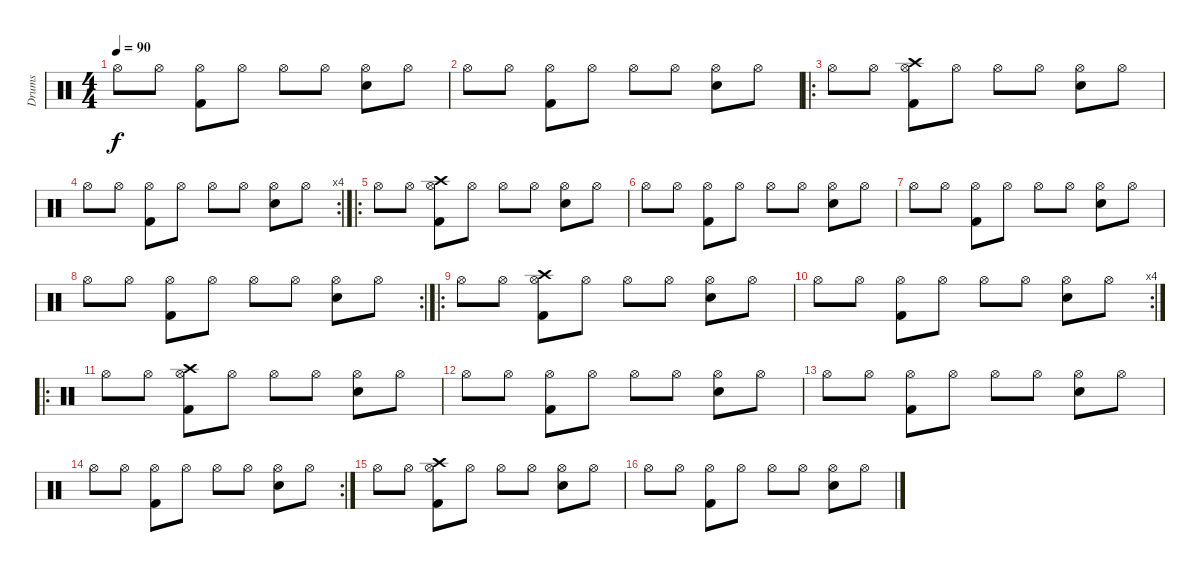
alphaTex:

\track ("Drums" "Drums") {instrument percussion}
\staff {score}
\articulation defaults
\ts (4 4)
\tempo 90
\clef neutral
\ks c "Hi-Hat (open)".8{dy f} "Hi-Hat (open)".8
("Kick (hit) 2" "Hi-Hat (open)").8 "Hi-Hat (open)".8 "Hi-Hat (open)".8 "Hi-Hat (open)".8 ("Snare (hit) 2" "Hi-Hat (open)").8 "Hi-Hat (open)".8 |
"Hi-Hat (open)".8 "Hi-Hat (open)".8 ("Kick (hit) 2" "Hi-Hat (open)").8 "Hi-Hat (open)".8 "Hi-Hat (open)".8 "Hi-Hat (open)".8 ("Snare (hit) 2" "Hi-Hat (open)").8 "Hi-Hat (open)".8 |
\ro "Hi-Hat (open)".8 "Hi-Hat (open)".8
("Crash high (hit)" "Kick (hit) 2" "Hi-Hat (open)").8 "Hi-Hat (open)".8 "Hi-Hat (open)".8 "Hi-Hat (open)".8 ("Snare (hit) 2" "Hi-Hat (open)").8 "Hi-Hat (open)".8 |
\rc 4 "Hi-Hat (open)".8 "Hi-Hat (open)".8
("Kick (hit) 2" "Hi-Hat (open)").8 "Hi-Hat (open)".8 "Hi-Hat (open)".8 "Hi-Hat (open)".8 ("Snare (hit) 2" "Hi-Hat (open)").8 "Hi-Hat (open)".8 |
\ro "Hi-Hat (open)".8 "Hi-Hat (open)".8
("Crash high (hit)" "Kick (hit) 2" "Hi-Hat (open)").8 "Hi-Hat (open)".8 "Hi-Hat (open)".8 "Hi-Hat (open)".8 ("Snare (hit) 2" "Hi-Hat (open)").8 "Hi-Hat (open)".8 |
"Hi-Hat (open)".8 "Hi-Hat (open)".8 ("Kick (hit) 2" "Hi-Hat (open)").8 "Hi-Hat (open)".8 "Hi-Hat (open)".8 "Hi-Hat (open)".8 ("Snare (hit) 2" "Hi-Hat (open)").8 "Hi-Hat (open)".8 |
"Hi-Hat (open)".8 "Hi-Hat (open)".8 ("Kick (hit) 2" "Hi-Hat (open)").8 "Hi-Hat (open)".8 "Hi-Hat (open)".8 "Hi-Hat (open)".8 ("Snare (hit) 2" "Hi-Hat (open)").8 "Hi-Hat (open)".8 |
\rc 2 "Hi-Hat (open)".8 "Hi-Hat (open)".8
("Kick (hit) 2" "Hi-Hat (open)").8 "Hi-Hat (open)".8 "Hi-Hat (open)".8 "Hi-Hat (open)".8 ("Snare (hit) 2" "Hi-Hat (open)").8 "Hi-Hat (open)".8 |
\ro "Hi-Hat (open)".8 "Hi-Hat (open)".8
("Crash high (hit)" "Kick (hit) 2" "Hi-Hat (open)").8 "Hi-Hat (open)".8 "Hi-Hat (open)".8 "Hi-Hat (open)".8 ("Snare (hit) 2" "Hi-Hat (open)").8 "Hi-Hat (open)".8 |
\rc 4 "Hi-Hat (open)".8 "Hi-Hat (open)".8
("Kick (hit) 2" "Hi-Hat (open)").8 "Hi-Hat (open)".8 "Hi-Hat (open)".8 "Hi-Hat (open)".8 ("Snare (hit) 2" "Hi-Hat (open)").8 "Hi-Hat (open)".8 |
\ro "Hi-Hat (open)".8 "Hi-Hat (open)".8
("Crash high (hit)" "Kick (hit) 2" "Hi-Hat (open)").8 "Hi-Hat (open)".8 "Hi-Hat (open)".8 "Hi-Hat (open)".8 ("Snare (hit) 2" "Hi-Hat (open)").8 "Hi-Hat (open)".8 |
"Hi-Hat (open)".8 "Hi-Hat (open)".8 ("Kick (hit) 2" "Hi-Hat (open)").8 "Hi-Hat (open)".8 "Hi-Hat (open)".8 "Hi-Hat (open)".8 ("Snare (hit) 2" "Hi-Hat (open)").8 "Hi-Hat (open)".8 |
"Hi-Hat (open)".8 "Hi-Hat (open)".8 ("Kick (hit) 2" "Hi-Hat (open)").8 "Hi-Hat (open)".8 "Hi-Hat (open)".8 "Hi-Hat (open)".8 ("Snare (hit) 2" "Hi-Hat (open)").8 "Hi-Hat (open)".8 |
\rc 2 "Hi-Hat (open)".8 "Hi-Hat (open)".8
("Kick (hit) 2" "Hi-Hat (open)").8 "Hi-Hat (open)".8 "Hi-Hat (open)".8 "Hi-Hat (open)".8 ("Snare (hit) 2" "Hi-Hat (open)").8 "Hi-Hat (open)".8 |
"Hi-Hat (open)".8 "Hi-Hat (open)".8 ("Crash high (hit)" "Kick (hit) 2" "Hi-Hat (open)").8 "Hi-Hat (open)".8 "Hi-Hat (open)".8 "Hi-Hat (open)".8 ("Snare (hit) 2" "Hi-Hat (open)").8 "Hi-Hat (open)".8 |
"Hi-Hat (open)".8 "Hi-Hat (open)".8 ("Kick (hit) 2" "Hi-Hat (open)").8 "Hi-Hat (open)".8 "Hi-Hat (open)".8 "Hi-Hat (open)".8 ("Snare (hit) 2" "Hi-Hat (open)").8 "Hi-Hat (open)".8
